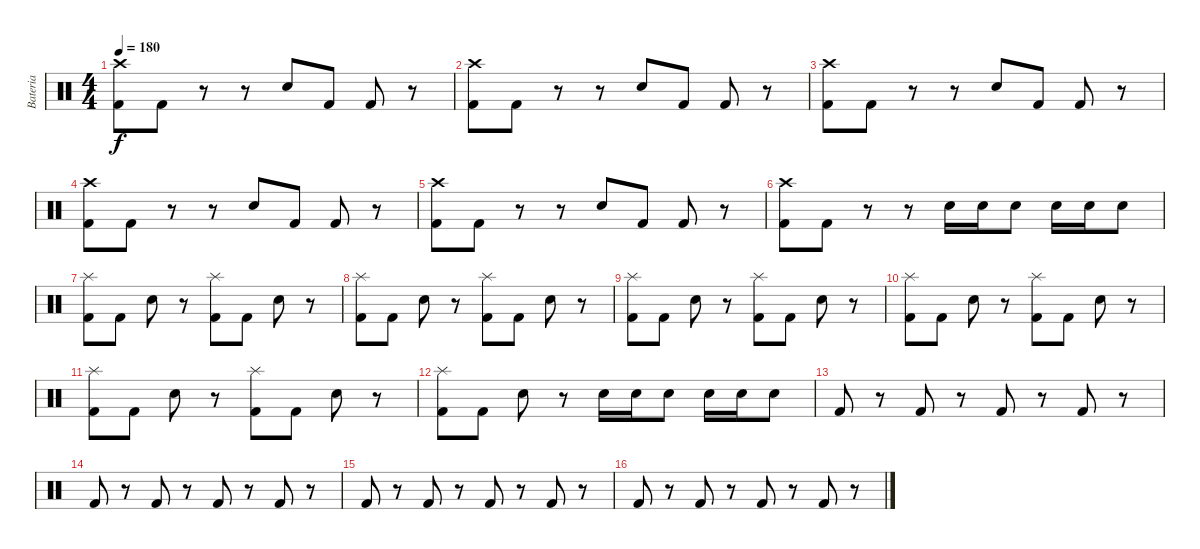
\track ("Bateria" "Bateria") {instrument percussion}
\staff {score}
\articulation defaults
\ts (4 4)
\tempo 180
\clef neutral
\ks c
("Kick (hit) 2" "Crash high (hit)").8{dy f} "Kick (hit) 2".8 r.8 r.8 "Electric Snare (hit)".8 "Kick (hit) 2".8 "Kick (hit) 2".8 r.8 |
("Kick (hit) 2" "Crash high (hit)").8 "Kick (hit) 2".8 r.8 r.8 "Electric Snare (hit)".8 "Kick (hit) 2".8 "Kick (hit) 2".8 r.8 |
("Kick (hit) 2" "Crash high (hit)").8 "Kick (hit) 2".8 r.8 r.8 "Electric Snare (hit)".8 "Kick (hit) 2".8 "Kick (hit) 2".8 r.8 |
("Kick (hit) 2" "Crash high (hit)").8 "Kick (hit) 2".8 r.8 r.8 "Electric Snare (hit)".8 "Kick (hit) 2".8 "Kick (hit) 2".8 r.8 |
("Kick (hit) 2" "Crash high (hit)").8 "Kick (hit) 2".8 r.8 r.8 "Electric Snare (hit)".8 "Kick (hit) 2".8 "Kick (hit) 2".8 r.8 |
("Kick (hit) 2" "Crash high (hit)").8 "Kick (hit) 2".8 r.8 r.8 "Electric Snare (hit)".16 "Electric Snare (hit)".16 "Electric Snare (hit)".8 "Electric Snare (hit)".16 "Electric Snare (hit)".16 "Electric Snare (hit)".8 |
("Kick (hit) 2" "Splash (hit)").8 "Kick (hit) 2".8 "Electric Snare (hit)".8 r.8 ("Kick (hit) 2" "Splash (hit)").8 "Kick (hit) 2".8 "Electric Snare (hit)".8 r.8 |
("Kick (hit) 2" "Splash (hit)").8 "Kick (hit) 2".8 "Electric Snare (hit)".8 r.8 ("Kick (hit) 2" "Splash (hit)").8 "Kick (hit) 2".8 "Electric Snare (hit)".8 r.8 |
("Kick (hit) 2" "Splash (hit)").8 "Kick (hit) 2".8 "Electric Snare (hit)".8 r.8 ("Kick (hit) 2" "Splash (hit)").8 "Kick (hit) 2".8 "Electric Snare (hit)".8 r.8 |
("Kick (hit) 2" "Splash (hit)").8 "Kick (hit) 2".8 "Electric Snare (hit)".8 r.8 ("Kick (hit) 2" "Splash (hit)").8 "Kick (hit) 2".8 "Electric Snare (hit)".8 r.8 |
("Kick (hit) 2" "Splash (hit)").8 "Kick (hit) 2".8 "Electric Snare (hit)".8 r.8 ("Kick (hit) 2" "Splash (hit)").8 "Kick (hit) 2".8 "Electric Snare (hit)".8 r.8 |
("Kick (hit) 2" "Splash (hit)").8 "Kick (hit) 2".8 "Electric Snare (hit)".8 r.8 "Electric Snare (hit)".16 "Electric Snare (hit)".16 "Electric Snare (hit)".8 "Electric Snare (hit)".16 "Electric Snare (hit)".16 "Electric Snare (hit)".8 |
"Kick (hit) 2".8 r.8 "Kick (hit) 2".8 r.8 "Kick (hit) 2".8 r.8 "Kick (hit) 2".8 r.8 |
"Kick (hit) 2".8 r.8 "Kick (hit) 2".8 r.8 "Kick (hit) 2".8 r.8 "Kick (hit) 2".8 r.8 |
"Kick (hit) 2".8 r.8 "Kick (hit) 2".8 r.8 "Kick (hit) 2".8 r.8 "Kick (hit) 2".8 r.8 |
"Kick (hit) 2".8 r.8 "Kick (hit) 2".8 r.8 "Kick (hit) 2".8 r.8 "Kick (hit) 2".8 r.8
